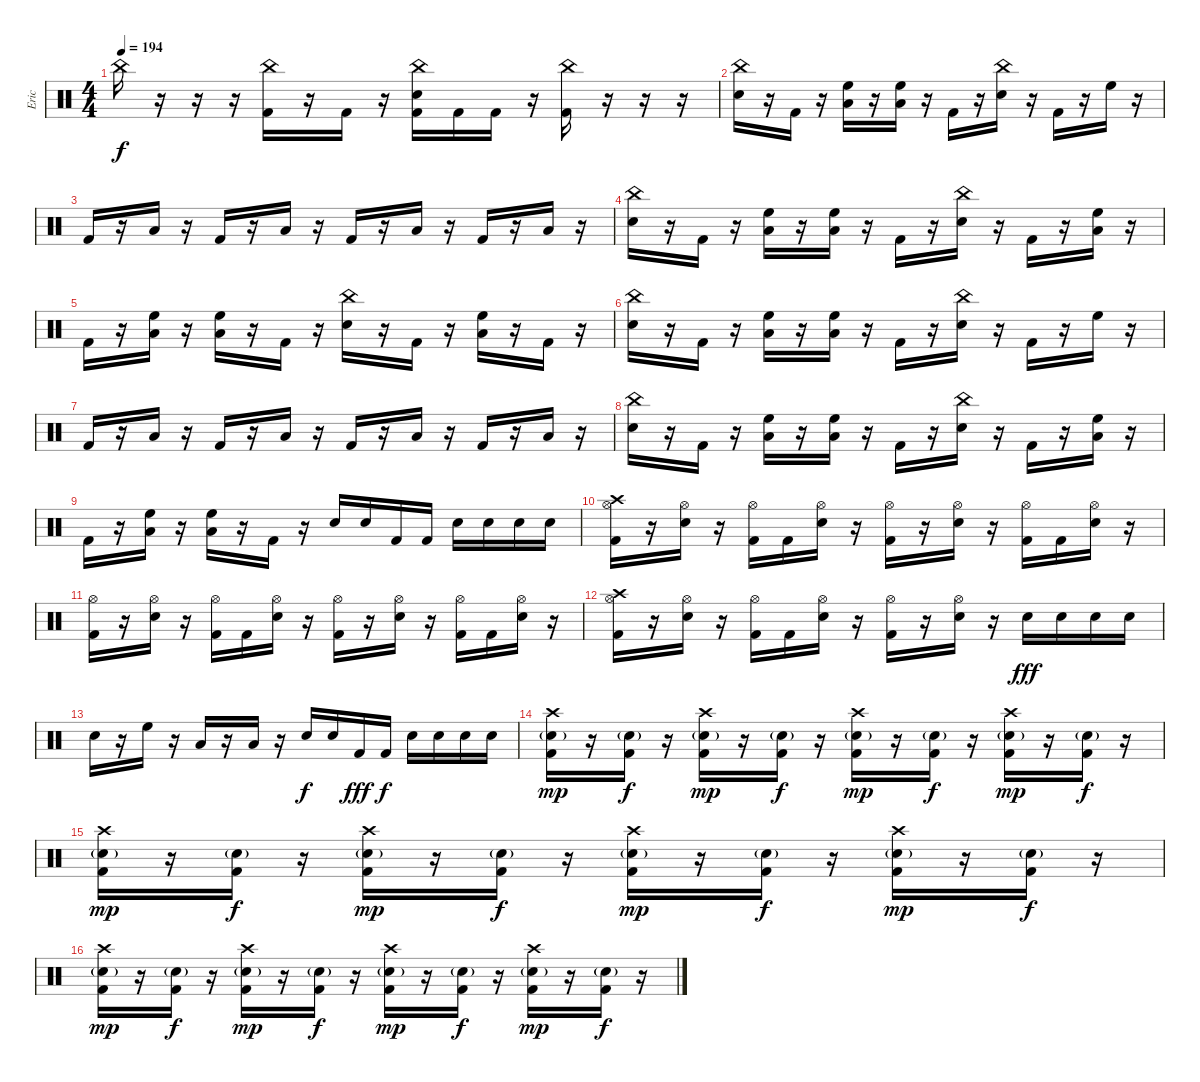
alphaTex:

\track ("Eric" "Eric") {instrument percussion}
\staff {score}
\articulation defaults
\ts (4 4)
\tempo 194
\clef neutral
\ks c "China (hit)".16{dy f}
r.16 r.16 r.16 ("China (hit)" "Kick (hit) 2").16 r.16 "Kick (hit) 2".16 r.16 ("China (hit)" "Electric Snare (hit)" "Kick (hit) 2").16 "Kick (hit) 2".16 "Kick (hit) 2".16 r.16 ("China (hit)" "Kick (hit) 2").16 r.16 r.16 r.16 |
("China (hit)" "Electric Snare (hit)").16 r.16 "Kick (hit) 2".16 r.16 ("High Floor Tom (hit)" "Low Floor Tom (hit)").16 r.16 ("High Floor Tom (hit)" "Low Floor Tom (hit)").16 r.16 "Kick (hit) 2".16 r.16 ("China (hit)" "Electric Snare (hit)").16 r.16 "Kick (hit) 2".16 r.16 "High Floor Tom (hit)".16 r.16 |
"Kick (hit) 2".16 r.16 "Low Tom (hit)".16 r.16 "Kick (hit) 2".16 r.16 "Low Floor Tom (hit)".16 r.16 "Kick (hit) 2".16 r.16 "Low Floor Tom (hit)".16 r.16 "Kick (hit) 2".16 r.16 "Low Floor Tom (hit)".16 r.16 |
("China (hit)" "Electric Snare (hit)").16 r.16 "Kick (hit) 2".16 r.16 ("High Floor Tom (hit)" "Low Floor Tom (hit)").16 r.16 ("High Floor Tom (hit)" "Low Floor Tom (hit)").16 r.16 "Kick (hit) 2".16 r.16 ("China (hit)" "Electric Snare (hit)").16 r.16 "Kick (hit) 2".16 r.16 ("High Floor Tom (hit)" "Low Floor Tom (hit)").16 r.16 |
"Kick (hit) 2".16 r.16 ("High Floor Tom (hit)" "Low Floor Tom (hit)").16 r.16 ("High Floor Tom (hit)" "Low Floor Tom (hit)").16 r.16 "Kick (hit) 2".16 r.16 ("China (hit)" "Electric Snare (hit)").16 r.16 "Kick (hit) 2".16 r.16 ("High Floor Tom (hit)" "Low Floor Tom (hit)").16 r.16 "Kick (hit) 2".16 r.16 |
("China (hit)" "Electric Snare (hit)").16 r.16 "Kick (hit) 2".16 r.16 ("High Floor Tom (hit)" "Low Floor Tom (hit)").16 r.16 ("High Floor Tom (hit)" "Low Floor Tom (hit)").16 r.16 "Kick (hit) 2".16 r.16 ("China (hit)" "Electric Snare (hit)").16 r.16 "Kick (hit) 2".16 r.16 "High Floor Tom (hit)".16 r.16 |
"Kick (hit) 2".16 r.16 "Low Tom (hit)".16 r.16 "Kick (hit) 2".16 r.16 "Low Floor Tom (hit)".16 r.16 "Kick (hit) 2".16 r.16 "Low Floor Tom (hit)".16 r.16 "Kick (hit) 2".16 r.16 "Low Floor Tom (hit)".16 r.16 |
("China (hit)" "Electric Snare (hit)").16 r.16 "Kick (hit) 2".16 r.16 ("High Floor Tom (hit)" "Low Floor Tom (hit)").16 r.16 ("High Floor Tom (hit)" "Low Floor Tom (hit)").16 r.16 "Kick (hit) 2".16 r.16 ("China (hit)" "Electric Snare (hit)").16 r.16 "Kick (hit) 2".16 r.16 ("High Floor Tom (hit)" "Low Floor Tom (hit)").16 r.16 |
"Kick (hit) 2".16 r.16 ("High Floor Tom (hit)" "Low Floor Tom (hit)").16 r.16 ("High Floor Tom (hit)" "Low Floor Tom (hit)").16 r.16 "Kick (hit) 2".16 r.16 "Electric Snare (hit)".16 "Electric Snare (hit)".16 "Kick (hit) 2".16 "Kick (hit) 2".16 "Electric Snare (hit)".16 "Electric Snare (hit)".16 "Electric Snare (hit)".16 "Electric Snare (hit)".16 |
("Crash high (hit)" "Hi-Hat (open)" "Kick (hit) 2").16 r.16 ("Hi-Hat (open)" "Electric Snare (hit)").16 r.16 ("Hi-Hat (open)" "Kick (hit) 2").16 "Kick (hit) 2".16 ("Hi-Hat (open)" "Electric Snare (hit)").16 r.16 ("Hi-Hat (open)" "Kick (hit) 2").16 r.16 ("Hi-Hat (open)" "Electric Snare (hit)").16 r.16 ("Hi-Hat (open)" "Kick (hit) 2").16 "Kick (hit) 2".16 ("Hi-Hat (open)" "Electric Snare (hit)").16 r.16 |
("Hi-Hat (open)" "Kick (hit) 2").16 r.16 ("Hi-Hat (open)" "Electric Snare (hit)").16 r.16 ("Hi-Hat (open)" "Kick (hit) 2").16 "Kick (hit) 2".16 ("Hi-Hat (open)" "Electric Snare (hit)").16 r.16 ("Hi-Hat (open)" "Kick (hit) 2").16 r.16 ("Hi-Hat (open)" "Electric Snare (hit)").16 r.16 ("Hi-Hat (open)" "Kick (hit) 2").16 "Kick (hit) 2".16 ("Hi-Hat (open)" "Electric Snare (hit)").16 r.16 |
("Crash high (hit)" "Hi-Hat (open)" "Kick (hit) 2").16 r.16 ("Hi-Hat (open)" "Electric Snare (hit)").16 r.16 ("Hi-Hat (open)" "Kick (hit) 2").16 "Kick (hit) 2".16 ("Hi-Hat (open)" "Electric Snare (hit)").16 r.16 ("Hi-Hat (open)" "Kick (hit) 2").16 r.16 ("Hi-Hat (open)" "Electric Snare (hit)").16 r.16 "Electric Snare (hit)".16{dy fff} "Electric Snare (hit)".16 "Electric Snare (hit)".16 "Electric Snare (hit)".16 |
"Electric Snare (hit)".16 r.16 "High Floor Tom (hit)".16 r.16 "Low Tom (hit)".16 r.16 "Low Tom (hit)".16 r.16 "Electric Snare (hit)".16{dy f} "Electric Snare (hit)".16 "Kick (hit) 2".16{dy fff} "Kick (hit) 2".16{dy f} "Electric Snare (hit)".16 "Electric Snare (hit)".16 "Electric Snare (hit)".16 "Electric Snare (hit)".16 |
("Crash high (hit)" "Electric Snare (hit)"{g} "Kick (hit) 2").16{dy mp} r.16 ("Electric Snare (hit)"{g} "Kick (hit) 2").16{dy f} r.16 ("Crash high (hit)" "Electric Snare (hit)"{g} "Kick (hit) 2").16{dy mp} r.16 ("Electric Snare (hit)"{g} "Kick (hit) 2").16{dy f} r.16 ("Crash high (hit)" "Electric Snare (hit)"{g} "Kick (hit) 2").16{dy mp} r.16 ("Electric Snare (hit)"{g} "Kick (hit) 2").16{dy f} r.16 ("Crash high (hit)" "Electric Snare (hit)"{g} "Kick (hit) 2").16{dy mp} r.16 ("Electric Snare (hit)"{g} "Kick (hit) 2").16{dy f} r.16 |
("Crash high (hit)" "Electric Snare (hit)"{g} "Kick (hit) 2").16{dy mp} r.16 ("Electric Snare (hit)"{g} "Kick (hit) 2").16{dy f} r.16 ("Crash high (hit)" "Electric Snare (hit)"{g} "Kick (hit) 2").16{dy mp} r.16 ("Electric Snare (hit)"{g} "Kick (hit) 2").16{dy f} r.16 ("Crash high (hit)" "Electric Snare (hit)"{g} "Kick (hit) 2").16{dy mp} r.16 ("Electric Snare (hit)"{g} "Kick (hit) 2").16{dy f} r.16 ("Crash high (hit)" "Electric Snare (hit)"{g} "Kick (hit) 2").16{dy mp} r.16 ("Electric Snare (hit)"{g} "Kick (hit) 2").16{dy f} r.16 |
("Crash high (hit)" "Electric Snare (hit)"{g} "Kick (hit) 2").16{dy mp} r.16 ("Electric Snare (hit)"{g} "Kick (hit) 2").16{dy f} r.16 ("Crash high (hit)" "Electric Snare (hit)"{g} "Kick (hit) 2").16{dy mp} r.16 ("Electric Snare (hit)"{g} "Kick (hit) 2").16{dy f} r.16 ("Crash high (hit)" "Electric Snare (hit)"{g} "Kick (hit) 2").16{dy mp} r.16 ("Electric Snare (hit)"{g} "Kick (hit) 2").16{dy f} r.16 ("Crash high (hit)" "Electric Snare (hit)"{g} "Kick (hit) 2").16{dy mp} r.16 ("Electric Snare (hit)"{g} "Kick (hit) 2").16{dy f} r.16
